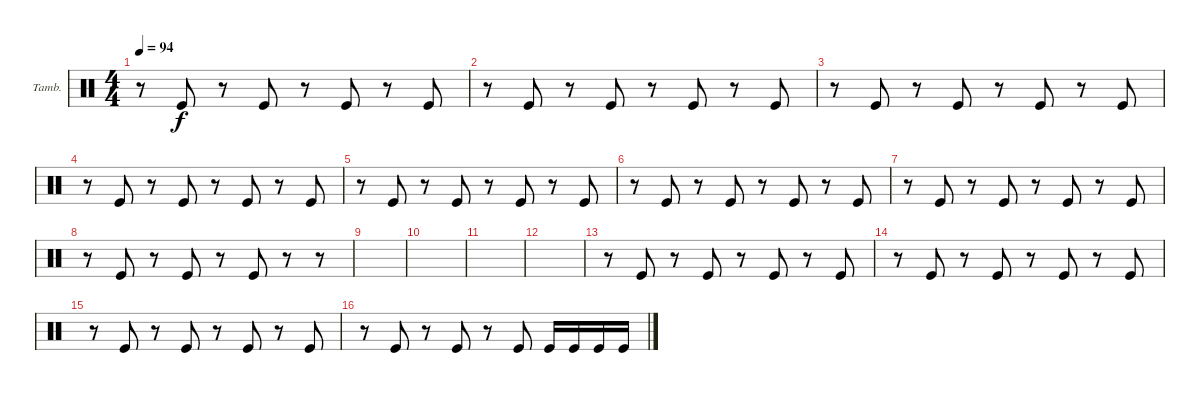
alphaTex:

\defaultSystemsLayout 4
\bracketExtendMode groupsimilarinstruments
\firstSystemTrackNameOrientation horizontal
\otherSystemsTrackNameOrientation horizontal
\track ("Tambourine" "Tamb.") {instrument percussion}
\staff {score}
\articulation defaults
\ts (4 4)
\tempo 94
\clef neutral
\scale
0.333333
\ks c
r.8{dy f} "Kick (hit)".8 r.8 "Kick (hit)".8 r.8 "Kick (hit)".8 r.8 "Kick (hit)".8 |
\scale
0.333333 r.8 "Kick (hit)".8 r.8 "Kick (hit)".8 r.8 "Kick (hit)".8 r.8 "Kick (hit)".8 |
\scale
0.333333 r.8 "Kick (hit)".8 r.8 "Kick (hit)".8 r.8 "Kick (hit)".8 r.8 "Kick (hit)".8 |
\scale
0.333333 r.8 "Kick (hit)".8 r.8 "Kick (hit)".8 r.8 "Kick (hit)".8 r.8 "Kick (hit)".8 |
\scale
0.333333 r.8 "Kick (hit)".8 r.8 "Kick (hit)".8 r.8 "Kick (hit)".8 r.8 "Kick (hit)".8 |
\scale
0.333333 r.8 "Kick (hit)".8 r.8 "Kick (hit)".8 r.8 "Kick (hit)".8 r.8 "Kick (hit)".8 |
\scale
0.333333 r.8 "Kick (hit)".8 r.8 "Kick (hit)".8 r.8 "Kick (hit)".8 r.8 "Kick (hit)".8 |
\scale
0.333333 r.8 "Kick (hit)".8 r.8 "Kick (hit)".8 r.8 "Kick (hit)".8 r.8 r.8 |
\scale
0.333333 |
\scale
0.333333 |
\scale
0.333333 |
\scale
0.333333 |
\scale
0.333333 r.8 "Kick (hit)".8 r.8 "Kick (hit)".8 r.8 "Kick (hit)".8 r.8 "Kick (hit)".8 |
\scale
0.333333 r.8 "Kick (hit)".8 r.8 "Kick (hit)".8 r.8 "Kick (hit)".8 r.8 "Kick (hit)".8 |
\scale
0.333333 r.8 "Kick (hit)".8 r.8 "Kick (hit)".8 r.8 "Kick (hit)".8 r.8 "Kick (hit)".8 |
\scale
0.333333 r.8 "Kick (hit)".8 r.8 "Kick (hit)".8 r.8 "Kick (hit)".8 "Kick (hit)".16 "Kick (hit)".16 "Kick (hit)".16 "Kick (hit)".16
